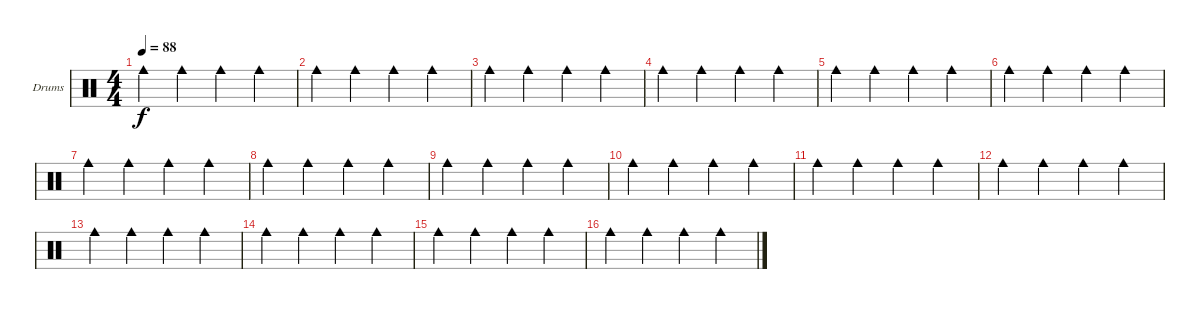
\bracketExtendMode groupsimilarinstruments
\firstSystemTrackNameOrientation horizontal
\otherSystemsTrackNameOrientation horizontal
\track ("Bell" "Drums") {instrument percussion}
\staff {score}
\articulation defaults
\ts (4 4)
\tempo 88
\clef neutral
\ks c "Cowbell medium (hit)".4{dy f} "Cowbell medium (hit)".4 "Cowbell medium (hit)".4 "Cowbell medium (hit)".4
|
"Cowbell medium (hit)".4 "Cowbell medium (hit)".4 "Cowbell medium (hit)".4 "Cowbell medium (hit)".4 |
"Cowbell medium (hit)".4 "Cowbell medium (hit)".4 "Cowbell medium (hit)".4 "Cowbell medium (hit)".4 |
"Cowbell medium (hit)".4 "Cowbell medium (hit)".4 "Cowbell medium (hit)".4 "Cowbell medium (hit)".4 |
"Cowbell medium (hit)".4 "Cowbell medium (hit)".4 "Cowbell medium (hit)".4 "Cowbell medium (hit)".4 |
"Cowbell medium (hit)".4 "Cowbell medium (hit)".4 "Cowbell medium (hit)".4 "Cowbell medium (hit)".4 |
"Cowbell medium (hit)".4 "Cowbell medium (hit)".4 "Cowbell medium (hit)".4 "Cowbell medium (hit)".4 |
"Cowbell medium (hit)".4 "Cowbell medium (hit)".4 "Cowbell medium (hit)".4 "Cowbell medium (hit)".4 |
"Cowbell medium (hit)".4 "Cowbell medium (hit)".4 "Cowbell medium (hit)".4 "Cowbell medium (hit)".4 |
"Cowbell medium (hit)".4 "Cowbell medium (hit)".4 "Cowbell medium (hit)".4 "Cowbell medium (hit)".4 |
"Cowbell medium (hit)".4 "Cowbell medium (hit)".4 "Cowbell medium (hit)".4 "Cowbell medium (hit)".4 |
"Cowbell medium (hit)".4 "Cowbell medium (hit)".4 "Cowbell medium (hit)".4 "Cowbell medium (hit)".4 |
"Cowbell medium (hit)".4 "Cowbell medium (hit)".4 "Cowbell medium (hit)".4 "Cowbell medium (hit)".4 |
"Cowbell medium (hit)".4 "Cowbell medium (hit)".4 "Cowbell medium (hit)".4 "Cowbell medium (hit)".4 |
"Cowbell medium (hit)".4 "Cowbell medium (hit)".4 "Cowbell medium (hit)".4 "Cowbell medium (hit)".4 |
"Cowbell medium (hit)".4 "Cowbell medium (hit)".4 "Cowbell medium (hit)".4 "Cowbell medium (hit)".4
